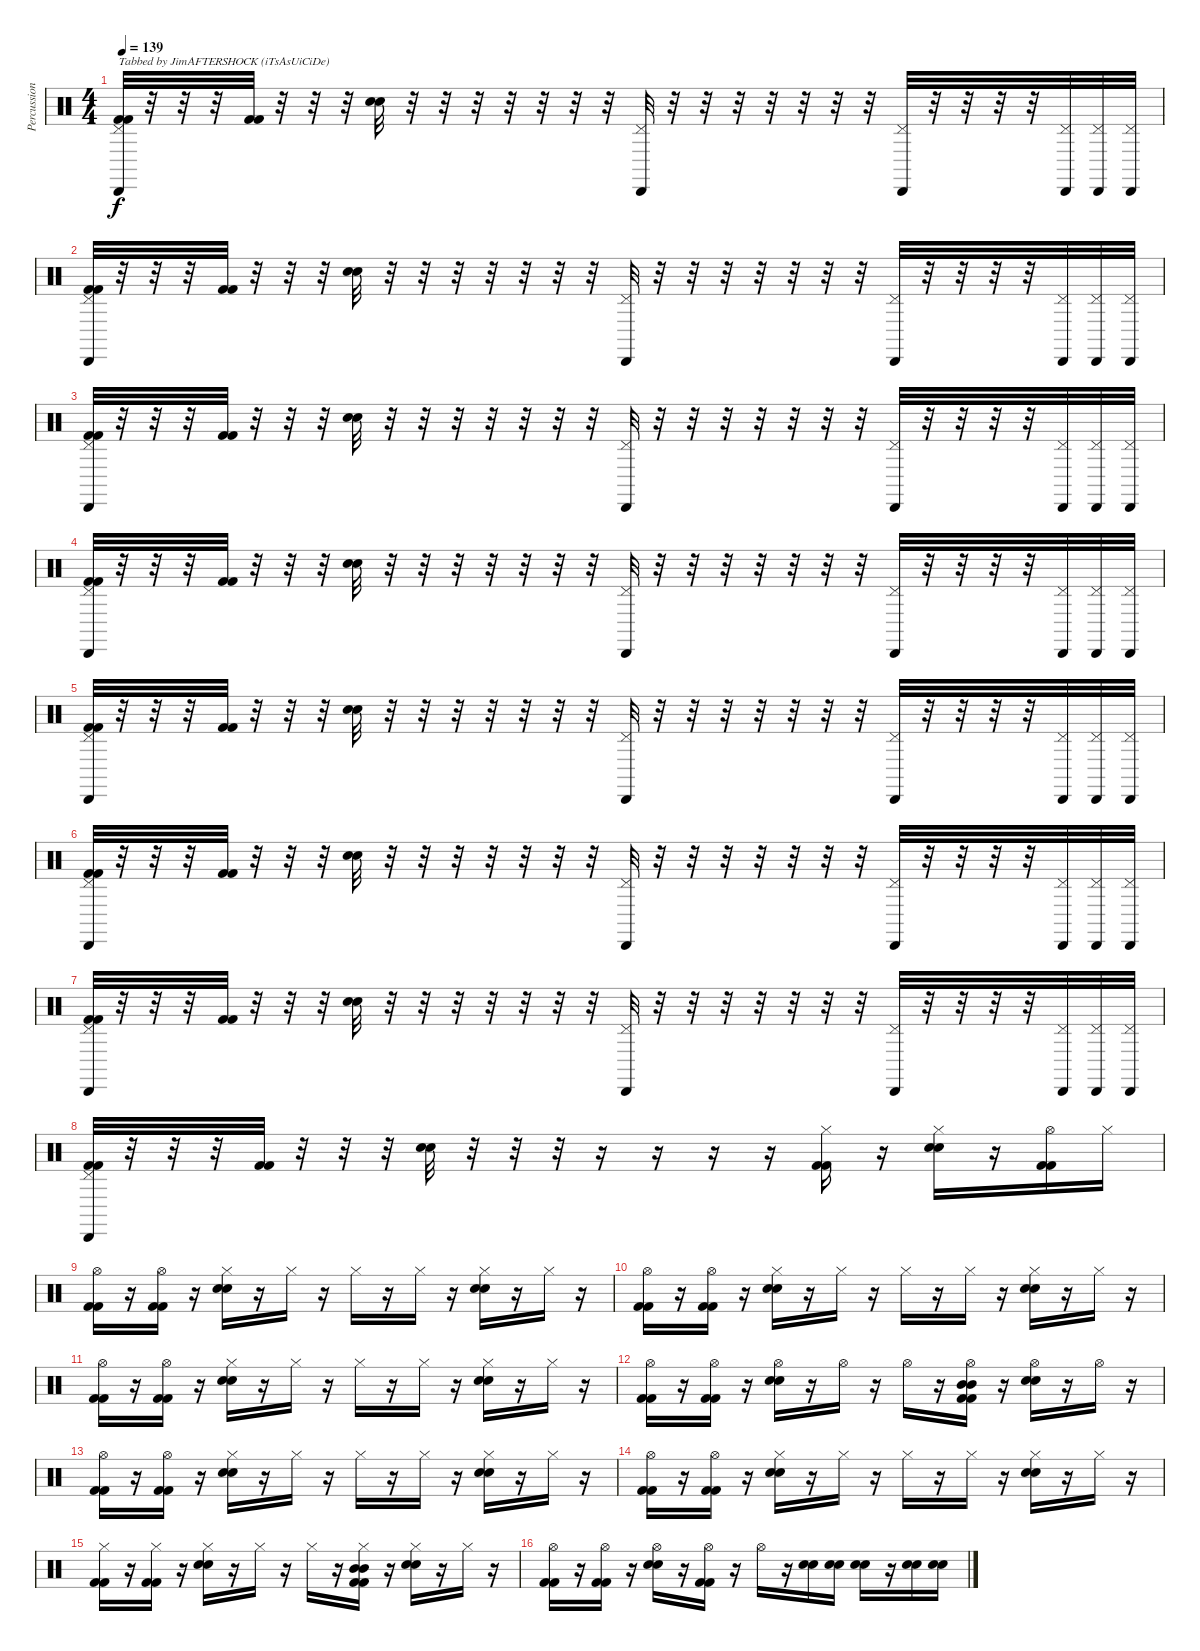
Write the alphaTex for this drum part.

\track ("Percussioni" "Percussion") {instrument percussion}
\staff {score}
\articulation defaults
\ts (4 4)
\tempo 139
\clef neutral
\ks c
("Kick (hit) 2" "Kick (hit) 2" "Pedal Hi-Hat (hit)" "Cabasa (hit)").32{txt "Tabbed by JimAFTERSHOCK (iTsAsUiCiDe)" dy f} r.32 r.32 r.32 ("Kick (hit) 2" "Kick (hit) 2").32 r.32 r.32 r.32 ("Snare (hit) 2" "Electric Snare (hit)").32 r.32 r.32 r.32 r.32 r.32 r.32 r.32 ("Pedal Hi-Hat (hit)" "Cabasa (hit)").32 r.32 r.32 r.32 r.32 r.32 r.32 r.32 ("Pedal Hi-Hat (hit)" "Cabasa (hit)").32 r.32 r.32 r.32 r.32 ("Pedal Hi-Hat (hit)" "Cabasa (hit)").32 ("Pedal Hi-Hat (hit)" "Cabasa (hit)").32 ("Pedal Hi-Hat (hit)" "Cabasa (hit)").32 |
("Kick (hit) 2" "Kick (hit) 2" "Pedal Hi-Hat (hit)" "Cabasa (hit)").32 r.32 r.32 r.32 ("Kick (hit) 2" "Kick (hit) 2").32 r.32 r.32 r.32 ("Snare (hit) 2" "Electric Snare (hit)").32 r.32 r.32 r.32 r.32 r.32 r.32 r.32 ("Pedal Hi-Hat (hit)" "Cabasa (hit)").32 r.32 r.32 r.32 r.32 r.32 r.32 r.32 ("Pedal Hi-Hat (hit)" "Cabasa (hit)").32 r.32 r.32 r.32 r.32 ("Pedal Hi-Hat (hit)" "Cabasa (hit)").32 ("Pedal Hi-Hat (hit)" "Cabasa (hit)").32 ("Pedal Hi-Hat (hit)" "Cabasa (hit)").32 |
("Kick (hit) 2" "Kick (hit) 2" "Pedal Hi-Hat (hit)" "Cabasa (hit)").32 r.32 r.32 r.32 ("Kick (hit) 2" "Kick (hit) 2").32 r.32 r.32 r.32 ("Snare (hit) 2" "Electric Snare (hit)").32 r.32 r.32 r.32 r.32 r.32 r.32 r.32 ("Pedal Hi-Hat (hit)" "Cabasa (hit)").32 r.32 r.32 r.32 r.32 r.32 r.32 r.32 ("Pedal Hi-Hat (hit)" "Cabasa (hit)").32 r.32 r.32 r.32 r.32 ("Pedal Hi-Hat (hit)" "Cabasa (hit)").32 ("Pedal Hi-Hat (hit)" "Cabasa (hit)").32 ("Pedal Hi-Hat (hit)" "Cabasa (hit)").32 |
("Kick (hit) 2" "Kick (hit) 2" "Pedal Hi-Hat (hit)" "Cabasa (hit)").32 r.32 r.32 r.32 ("Kick (hit) 2" "Kick (hit) 2").32 r.32 r.32 r.32 ("Snare (hit) 2" "Electric Snare (hit)").32 r.32 r.32 r.32 r.32 r.32 r.32 r.32 ("Pedal Hi-Hat (hit)" "Cabasa (hit)").32 r.32 r.32 r.32 r.32 r.32 r.32 r.32 ("Pedal Hi-Hat (hit)" "Cabasa (hit)").32 r.32 r.32 r.32 r.32 ("Pedal Hi-Hat (hit)" "Cabasa (hit)").32 ("Pedal Hi-Hat (hit)" "Cabasa (hit)").32 ("Pedal Hi-Hat (hit)" "Cabasa (hit)").32 |
("Kick (hit) 2" "Kick (hit) 2" "Pedal Hi-Hat (hit)" "Cabasa (hit)").32 r.32 r.32 r.32 ("Kick (hit) 2" "Kick (hit) 2").32 r.32 r.32 r.32 ("Snare (hit) 2" "Electric Snare (hit)").32 r.32 r.32 r.32 r.32 r.32 r.32 r.32 ("Pedal Hi-Hat (hit)" "Cabasa (hit)").32 r.32 r.32 r.32 r.32 r.32 r.32 r.32 ("Pedal Hi-Hat (hit)" "Cabasa (hit)").32 r.32 r.32 r.32 r.32 ("Pedal Hi-Hat (hit)" "Cabasa (hit)").32 ("Pedal Hi-Hat (hit)" "Cabasa (hit)").32 ("Pedal Hi-Hat (hit)" "Cabasa (hit)").32 |
("Kick (hit) 2" "Kick (hit) 2" "Pedal Hi-Hat (hit)" "Cabasa (hit)").32 r.32 r.32 r.32 ("Kick (hit) 2" "Kick (hit) 2").32 r.32 r.32 r.32 ("Snare (hit) 2" "Electric Snare (hit)").32 r.32 r.32 r.32 r.32 r.32 r.32 r.32 ("Pedal Hi-Hat (hit)" "Cabasa (hit)").32 r.32 r.32 r.32 r.32 r.32 r.32 r.32 ("Pedal Hi-Hat (hit)" "Cabasa (hit)").32 r.32 r.32 r.32 r.32 ("Pedal Hi-Hat (hit)" "Cabasa (hit)").32 ("Pedal Hi-Hat (hit)" "Cabasa (hit)").32 ("Pedal Hi-Hat (hit)" "Cabasa (hit)").32 |
("Kick (hit) 2" "Kick (hit) 2" "Pedal Hi-Hat (hit)" "Cabasa (hit)").32 r.32 r.32 r.32 ("Kick (hit) 2" "Kick (hit) 2").32 r.32 r.32 r.32 ("Snare (hit) 2" "Electric Snare (hit)").32 r.32 r.32 r.32 r.32 r.32 r.32 r.32 ("Pedal Hi-Hat (hit)" "Cabasa (hit)").32 r.32 r.32 r.32 r.32 r.32 r.32 r.32 ("Pedal Hi-Hat (hit)" "Cabasa (hit)").32 r.32 r.32 r.32 r.32 ("Pedal Hi-Hat (hit)" "Cabasa (hit)").32 ("Pedal Hi-Hat (hit)" "Cabasa (hit)").32 ("Pedal Hi-Hat (hit)" "Cabasa (hit)").32 |
("Kick (hit) 2" "Kick (hit) 2" "Pedal Hi-Hat (hit)" "Cabasa (hit)").32 r.32 r.32 r.32 ("Kick (hit) 2" "Kick (hit) 2").32 r.32 r.32 r.32 ("Snare (hit) 2" "Electric Snare (hit)").32 r.32 r.32 r.32 r.16 r.16 r.16 r.16 ("Hi-Hat (closed)" "Kick (hit) 2" "Kick (hit) 2").16 r.16 ("Hi-Hat (closed)" "Snare (hit) 2" "Electric Snare (hit)").16 r.16 ("Hi-Hat (open)" "Kick (hit) 2" "Kick (hit) 2").16 "Hi-Hat (closed)".16 |
("Hi-Hat (open)" "Kick (hit) 2" "Kick (hit) 2").16 r.16 ("Hi-Hat (open)" "Kick (hit) 2" "Kick (hit) 2").16 r.16 ("Hi-Hat (closed)" "Snare (hit) 2" "Electric Snare (hit)").16 r.16 "Hi-Hat (closed)".16 r.16 "Hi-Hat (closed)".16 r.16 "Hi-Hat (closed)".16 r.16 ("Hi-Hat (closed)" "Snare (hit) 2" "Electric Snare (hit)").16 r.16 "Hi-Hat (closed)".16 r.16 |
("Hi-Hat (open)" "Kick (hit) 2" "Kick (hit) 2").16 r.16 ("Hi-Hat (open)" "Kick (hit) 2" "Kick (hit) 2").16 r.16 ("Hi-Hat (closed)" "Snare (hit) 2" "Electric Snare (hit)").16 r.16 "Hi-Hat (closed)".16 r.16 "Hi-Hat (closed)".16 r.16 "Hi-Hat (closed)".16 r.16 ("Hi-Hat (closed)" "Snare (hit) 2" "Electric Snare (hit)").16 r.16 "Hi-Hat (closed)".16 r.16 |
("Hi-Hat (open)" "Kick (hit) 2" "Kick (hit) 2").16 r.16 ("Hi-Hat (open)" "Kick (hit) 2" "Kick (hit) 2").16 r.16 ("Hi-Hat (closed)" "Snare (hit) 2" "Electric Snare (hit)").16 r.16 "Hi-Hat (closed)".16 r.16 "Hi-Hat (closed)".16 r.16 "Hi-Hat (closed)".16 r.16 ("Hi-Hat (closed)" "Snare (hit) 2" "Electric Snare (hit)").16 r.16 "Hi-Hat (closed)".16 r.16 |
("Hi-Hat (open)" "Kick (hit) 2" "Kick (hit) 2").16 r.16 ("Hi-Hat (open)" "Kick (hit) 2" "Kick (hit) 2").16 r.16 ("Hi-Hat (open)" "Snare (hit) 2" "Electric Snare (hit)").16 r.16 "Hi-Hat (open)".16 r.16 "Hi-Hat (open)".16 r.16 ("Hi-Hat (open)" "Mid Tom (hit)" "Mid Tom (hit)" "Kick (hit) 2" "Kick (hit) 2").16 r.16 ("Hi-Hat (open)" "Snare (hit) 2" "Electric Snare (hit)").16 r.16 "Hi-Hat (open)".16 r.16 |
("Hi-Hat (open)" "Kick (hit) 2" "Kick (hit) 2").16 r.16 ("Hi-Hat (open)" "Kick (hit) 2" "Kick (hit) 2").16 r.16 ("Hi-Hat (closed)" "Snare (hit) 2" "Electric Snare (hit)").16 r.16 "Hi-Hat (closed)".16 r.16 "Hi-Hat (closed)".16 r.16 "Hi-Hat (closed)".16 r.16 ("Hi-Hat (closed)" "Snare (hit) 2" "Electric Snare (hit)").16 r.16 "Hi-Hat (closed)".16 r.16 |
("Hi-Hat (open)" "Kick (hit) 2" "Kick (hit) 2").16 r.16 ("Hi-Hat (open)" "Kick (hit) 2" "Kick (hit) 2").16 r.16 ("Hi-Hat (closed)" "Snare (hit) 2" "Electric Snare (hit)").16 r.16 "Hi-Hat (closed)".16 r.16 "Hi-Hat (closed)".16 r.16 "Hi-Hat (closed)".16 r.16 ("Hi-Hat (closed)" "Snare (hit) 2" "Electric Snare (hit)").16 r.16 "Hi-Hat (closed)".16 r.16 |
("Hi-Hat (closed)" "Kick (hit) 2" "Kick (hit) 2").16 r.16 ("Hi-Hat (closed)" "Kick (hit) 2" "Kick (hit) 2").16 r.16 ("Hi-Hat (closed)" "Snare (hit) 2" "Electric Snare (hit)").16 r.16 "Hi-Hat (closed)".16 r.16 "Hi-Hat (closed)".16 r.16 ("Hi-Hat (closed)" "Mid Tom (hit)" "Mid Tom (hit)" "Kick (hit) 2" "Kick (hit) 2").16 r.16 ("Hi-Hat (closed)" "Snare (hit) 2" "Electric Snare (hit)").16 r.16 "Hi-Hat (closed)".16 r.16 |
("Hi-Hat (open)" "Kick (hit) 2" "Kick (hit) 2").16 r.16 ("Hi-Hat (open)" "Kick (hit) 2" "Kick (hit) 2").16 r.16 ("Hi-Hat (open)" "Snare (hit) 2" "Electric Snare (hit)").16 r.16 ("Hi-Hat (open)" "Kick (hit) 2" "Kick (hit) 2").16 r.16 "Hi-Hat (open)".16 r.16 ("Snare (hit) 2" "Electric Snare (hit)").16 ("Snare (hit) 2" "Electric Snare (hit)").16 ("Snare (hit) 2" "Electric Snare (hit)").16 r.16 ("Snare (hit) 2" "Electric Snare (hit)").16 ("Snare (hit) 2" "Electric Snare (hit)").16
